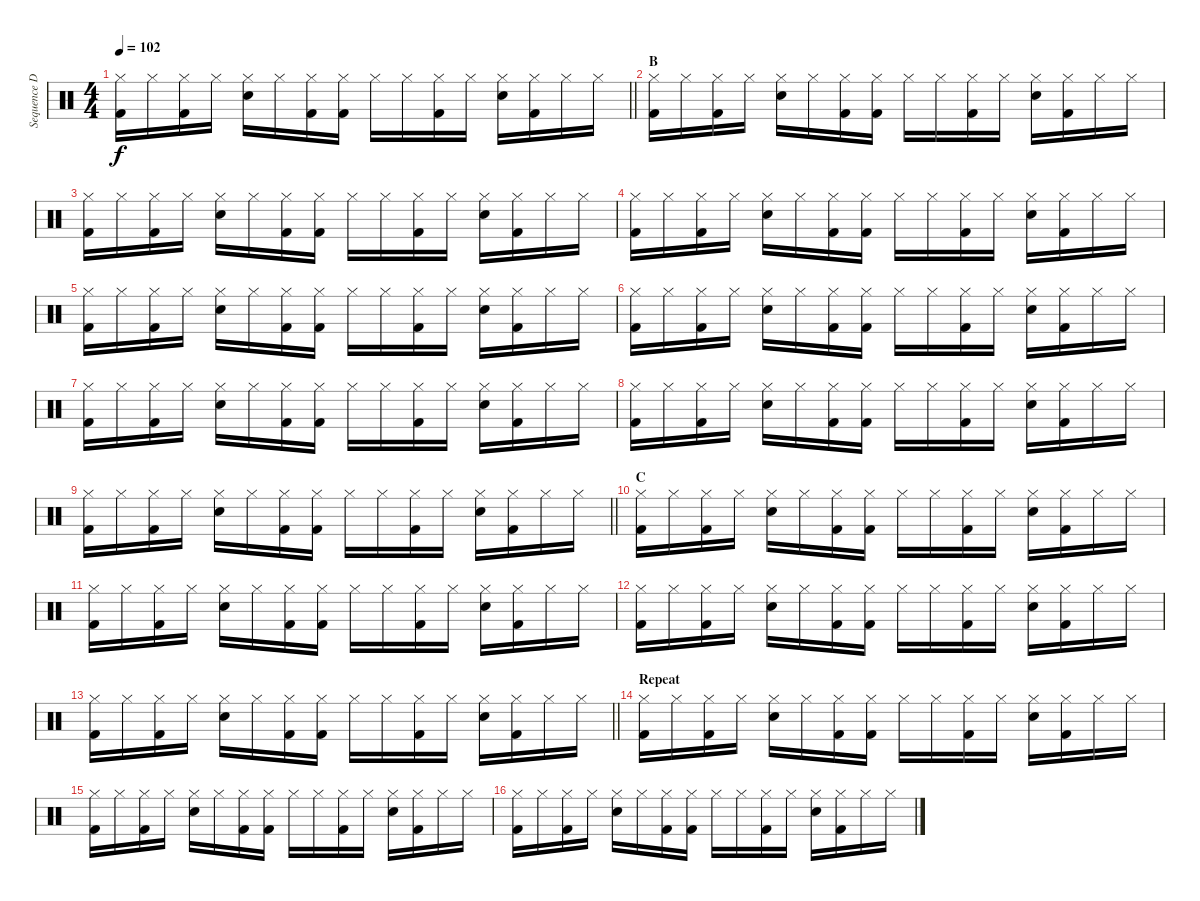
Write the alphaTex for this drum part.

\track ("Sequence Drums" "Sequence D") {instrument percussion}
\staff {score}
\articulation defaults
\ts (4 4)
\tempo 102
\clef neutral
\barLineRight lightlight
\ks c
("Hi-Hat (closed)" "Kick (hit) 2").16{dy f} "Hi-Hat (closed)".16 ("Hi-Hat (closed)" "Kick (hit) 2").16 "Hi-Hat (closed)".16 ("Hi-Hat (closed)" "Electric Snare (hit)").16 "Hi-Hat (closed)".16 ("Hi-Hat (closed)" "Kick (hit) 2").16 ("Hi-Hat (closed)" "Kick (hit) 2").16 "Hi-Hat (closed)".16 "Hi-Hat (closed)".16 ("Hi-Hat (closed)" "Kick (hit) 2").16 "Hi-Hat (closed)".16 ("Hi-Hat (closed)" "Electric Snare (hit)").16 ("Hi-Hat (closed)" "Kick (hit) 2").16 "Hi-Hat (closed)".16 "Hi-Hat (closed)".16 |
\section ("" "B")
("Hi-Hat (closed)" "Kick (hit) 2").16 "Hi-Hat (closed)".16 ("Hi-Hat (closed)" "Kick (hit) 2").16 "Hi-Hat (closed)".16 ("Hi-Hat (closed)" "Electric Snare (hit)").16 "Hi-Hat (closed)".16 ("Hi-Hat (closed)" "Kick (hit) 2").16 ("Hi-Hat (closed)" "Kick (hit) 2").16 "Hi-Hat (closed)".16 "Hi-Hat (closed)".16 ("Hi-Hat (closed)" "Kick (hit) 2").16 "Hi-Hat (closed)".16 ("Hi-Hat (closed)" "Electric Snare (hit)").16 ("Hi-Hat (closed)" "Kick (hit) 2").16 "Hi-Hat (closed)".16 "Hi-Hat (closed)".16 |
("Hi-Hat (closed)" "Kick (hit) 2").16 "Hi-Hat (closed)".16 ("Hi-Hat (closed)" "Kick (hit) 2").16 "Hi-Hat (closed)".16 ("Hi-Hat (closed)" "Electric Snare (hit)").16 "Hi-Hat (closed)".16 ("Hi-Hat (closed)" "Kick (hit) 2").16 ("Hi-Hat (closed)" "Kick (hit) 2").16 "Hi-Hat (closed)".16 "Hi-Hat (closed)".16 ("Hi-Hat (closed)" "Kick (hit) 2").16 "Hi-Hat (closed)".16 ("Hi-Hat (closed)" "Electric Snare (hit)").16 ("Hi-Hat (closed)" "Kick (hit) 2").16 "Hi-Hat (closed)".16 "Hi-Hat (closed)".16 |
("Hi-Hat (closed)" "Kick (hit) 2").16 "Hi-Hat (closed)".16 ("Hi-Hat (closed)" "Kick (hit) 2").16 "Hi-Hat (closed)".16 ("Hi-Hat (closed)" "Electric Snare (hit)").16 "Hi-Hat (closed)".16 ("Hi-Hat (closed)" "Kick (hit) 2").16 ("Hi-Hat (closed)" "Kick (hit) 2").16 "Hi-Hat (closed)".16 "Hi-Hat (closed)".16 ("Hi-Hat (closed)" "Kick (hit) 2").16 "Hi-Hat (closed)".16 ("Hi-Hat (closed)" "Electric Snare (hit)").16 ("Hi-Hat (closed)" "Kick (hit) 2").16 "Hi-Hat (closed)".16 "Hi-Hat (closed)".16 |
("Hi-Hat (closed)" "Kick (hit) 2").16 "Hi-Hat (closed)".16 ("Hi-Hat (closed)" "Kick (hit) 2").16 "Hi-Hat (closed)".16 ("Hi-Hat (closed)" "Electric Snare (hit)").16 "Hi-Hat (closed)".16 ("Hi-Hat (closed)" "Kick (hit) 2").16 ("Hi-Hat (closed)" "Kick (hit) 2").16 "Hi-Hat (closed)".16 "Hi-Hat (closed)".16 ("Hi-Hat (closed)" "Kick (hit) 2").16 "Hi-Hat (closed)".16 ("Hi-Hat (closed)" "Electric Snare (hit)").16 ("Hi-Hat (closed)" "Kick (hit) 2").16 "Hi-Hat (closed)".16 "Hi-Hat (closed)".16 |
("Hi-Hat (closed)" "Kick (hit) 2").16 "Hi-Hat (closed)".16 ("Hi-Hat (closed)" "Kick (hit) 2").16 "Hi-Hat (closed)".16 ("Hi-Hat (closed)" "Electric Snare (hit)").16 "Hi-Hat (closed)".16 ("Hi-Hat (closed)" "Kick (hit) 2").16 ("Hi-Hat (closed)" "Kick (hit) 2").16 "Hi-Hat (closed)".16 "Hi-Hat (closed)".16 ("Hi-Hat (closed)" "Kick (hit) 2").16 "Hi-Hat (closed)".16 ("Hi-Hat (closed)" "Electric Snare (hit)").16 ("Hi-Hat (closed)" "Kick (hit) 2").16 "Hi-Hat (closed)".16 "Hi-Hat (closed)".16 |
("Hi-Hat (closed)" "Kick (hit) 2").16 "Hi-Hat (closed)".16 ("Hi-Hat (closed)" "Kick (hit) 2").16 "Hi-Hat (closed)".16 ("Hi-Hat (closed)" "Electric Snare (hit)").16 "Hi-Hat (closed)".16 ("Hi-Hat (closed)" "Kick (hit) 2").16 ("Hi-Hat (closed)" "Kick (hit) 2").16 "Hi-Hat (closed)".16 "Hi-Hat (closed)".16 ("Hi-Hat (closed)" "Kick (hit) 2").16 "Hi-Hat (closed)".16 ("Hi-Hat (closed)" "Electric Snare (hit)").16 ("Hi-Hat (closed)" "Kick (hit) 2").16 "Hi-Hat (closed)".16 "Hi-Hat (closed)".16 |
("Hi-Hat (closed)" "Kick (hit) 2").16 "Hi-Hat (closed)".16 ("Hi-Hat (closed)" "Kick (hit) 2").16 "Hi-Hat (closed)".16 ("Hi-Hat (closed)" "Electric Snare (hit)").16 "Hi-Hat (closed)".16 ("Hi-Hat (closed)" "Kick (hit) 2").16 ("Hi-Hat (closed)" "Kick (hit) 2").16 "Hi-Hat (closed)".16 "Hi-Hat (closed)".16 ("Hi-Hat (closed)" "Kick (hit) 2").16 "Hi-Hat (closed)".16 ("Hi-Hat (closed)" "Electric Snare (hit)").16 ("Hi-Hat (closed)" "Kick (hit) 2").16 "Hi-Hat (closed)".16 "Hi-Hat (closed)".16 |
\barLineRight lightlight
("Hi-Hat (closed)" "Kick (hit) 2").16 "Hi-Hat (closed)".16 ("Hi-Hat (closed)" "Kick (hit) 2").16 "Hi-Hat (closed)".16 ("Hi-Hat (closed)" "Electric Snare (hit)").16 "Hi-Hat (closed)".16 ("Hi-Hat (closed)" "Kick (hit) 2").16 ("Hi-Hat (closed)" "Kick (hit) 2").16 "Hi-Hat (closed)".16 "Hi-Hat (closed)".16 ("Hi-Hat (closed)" "Kick (hit) 2").16 "Hi-Hat (closed)".16 ("Hi-Hat (closed)" "Electric Snare (hit)").16 ("Hi-Hat (closed)" "Kick (hit) 2").16 "Hi-Hat (closed)".16 "Hi-Hat (closed)".16 |
\section ("" "C")
("Hi-Hat (closed)" "Kick (hit) 2").16 "Hi-Hat (closed)".16 ("Hi-Hat (closed)" "Kick (hit) 2").16 "Hi-Hat (closed)".16 ("Hi-Hat (closed)" "Electric Snare (hit)").16 "Hi-Hat (closed)".16 ("Hi-Hat (closed)" "Kick (hit) 2").16 ("Hi-Hat (closed)" "Kick (hit) 2").16 "Hi-Hat (closed)".16 "Hi-Hat (closed)".16 ("Hi-Hat (closed)" "Kick (hit) 2").16 "Hi-Hat (closed)".16 ("Hi-Hat (closed)" "Electric Snare (hit)").16 ("Hi-Hat (closed)" "Kick (hit) 2").16 "Hi-Hat (closed)".16 "Hi-Hat (closed)".16 |
("Hi-Hat (closed)" "Kick (hit) 2").16 "Hi-Hat (closed)".16 ("Hi-Hat (closed)" "Kick (hit) 2").16 "Hi-Hat (closed)".16 ("Hi-Hat (closed)" "Electric Snare (hit)").16 "Hi-Hat (closed)".16 ("Hi-Hat (closed)" "Kick (hit) 2").16 ("Hi-Hat (closed)" "Kick (hit) 2").16 "Hi-Hat (closed)".16 "Hi-Hat (closed)".16 ("Hi-Hat (closed)" "Kick (hit) 2").16 "Hi-Hat (closed)".16 ("Hi-Hat (closed)" "Electric Snare (hit)").16 ("Hi-Hat (closed)" "Kick (hit) 2").16 "Hi-Hat (closed)".16 "Hi-Hat (closed)".16 |
("Hi-Hat (closed)" "Kick (hit) 2").16 "Hi-Hat (closed)".16 ("Hi-Hat (closed)" "Kick (hit) 2").16 "Hi-Hat (closed)".16 ("Hi-Hat (closed)" "Electric Snare (hit)").16 "Hi-Hat (closed)".16 ("Hi-Hat (closed)" "Kick (hit) 2").16 ("Hi-Hat (closed)" "Kick (hit) 2").16 "Hi-Hat (closed)".16 "Hi-Hat (closed)".16 ("Hi-Hat (closed)" "Kick (hit) 2").16 "Hi-Hat (closed)".16 ("Hi-Hat (closed)" "Electric Snare (hit)").16 ("Hi-Hat (closed)" "Kick (hit) 2").16 "Hi-Hat (closed)".16 "Hi-Hat (closed)".16 |
\barLineRight lightlight
("Hi-Hat (closed)" "Kick (hit) 2").16 "Hi-Hat (closed)".16 ("Hi-Hat (closed)" "Kick (hit) 2").16 "Hi-Hat (closed)".16 ("Hi-Hat (closed)" "Electric Snare (hit)").16 "Hi-Hat (closed)".16 ("Hi-Hat (closed)" "Kick (hit) 2").16 ("Hi-Hat (closed)" "Kick (hit) 2").16 "Hi-Hat (closed)".16 "Hi-Hat (closed)".16 ("Hi-Hat (closed)" "Kick (hit) 2").16 "Hi-Hat (closed)".16 ("Hi-Hat (closed)" "Electric Snare (hit)").16 ("Hi-Hat (closed)" "Kick (hit) 2").16 "Hi-Hat (closed)".16 "Hi-Hat (closed)".16 |
\section ("" "Repeat")
("Hi-Hat (closed)" "Kick (hit) 2").16 "Hi-Hat (closed)".16 ("Hi-Hat (closed)" "Kick (hit) 2").16 "Hi-Hat (closed)".16 ("Hi-Hat (closed)" "Electric Snare (hit)").16 "Hi-Hat (closed)".16 ("Hi-Hat (closed)" "Kick (hit) 2").16 ("Hi-Hat (closed)" "Kick (hit) 2").16 "Hi-Hat (closed)".16 "Hi-Hat (closed)".16 ("Hi-Hat (closed)" "Kick (hit) 2").16 "Hi-Hat (closed)".16 ("Hi-Hat (closed)" "Electric Snare (hit)").16 ("Hi-Hat (closed)" "Kick (hit) 2").16 "Hi-Hat (closed)".16 "Hi-Hat (closed)".16 |
("Hi-Hat (closed)" "Kick (hit) 2").16 "Hi-Hat (closed)".16 ("Hi-Hat (closed)" "Kick (hit) 2").16 "Hi-Hat (closed)".16 ("Hi-Hat (closed)" "Electric Snare (hit)").16 "Hi-Hat (closed)".16 ("Hi-Hat (closed)" "Kick (hit) 2").16 ("Hi-Hat (closed)" "Kick (hit) 2").16 "Hi-Hat (closed)".16 "Hi-Hat (closed)".16 ("Hi-Hat (closed)" "Kick (hit) 2").16 "Hi-Hat (closed)".16 ("Hi-Hat (closed)" "Electric Snare (hit)").16 ("Hi-Hat (closed)" "Kick (hit) 2").16 "Hi-Hat (closed)".16 "Hi-Hat (closed)".16 |
("Hi-Hat (closed)" "Kick (hit) 2").16 "Hi-Hat (closed)".16 ("Hi-Hat (closed)" "Kick (hit) 2").16 "Hi-Hat (closed)".16 ("Hi-Hat (closed)" "Electric Snare (hit)").16 "Hi-Hat (closed)".16 ("Hi-Hat (closed)" "Kick (hit) 2").16 ("Hi-Hat (closed)" "Kick (hit) 2").16 "Hi-Hat (closed)".16 "Hi-Hat (closed)".16 ("Hi-Hat (closed)" "Kick (hit) 2").16 "Hi-Hat (closed)".16 ("Hi-Hat (closed)" "Electric Snare (hit)").16 ("Hi-Hat (closed)" "Kick (hit) 2").16 "Hi-Hat (closed)".16 "Hi-Hat (closed)".16
